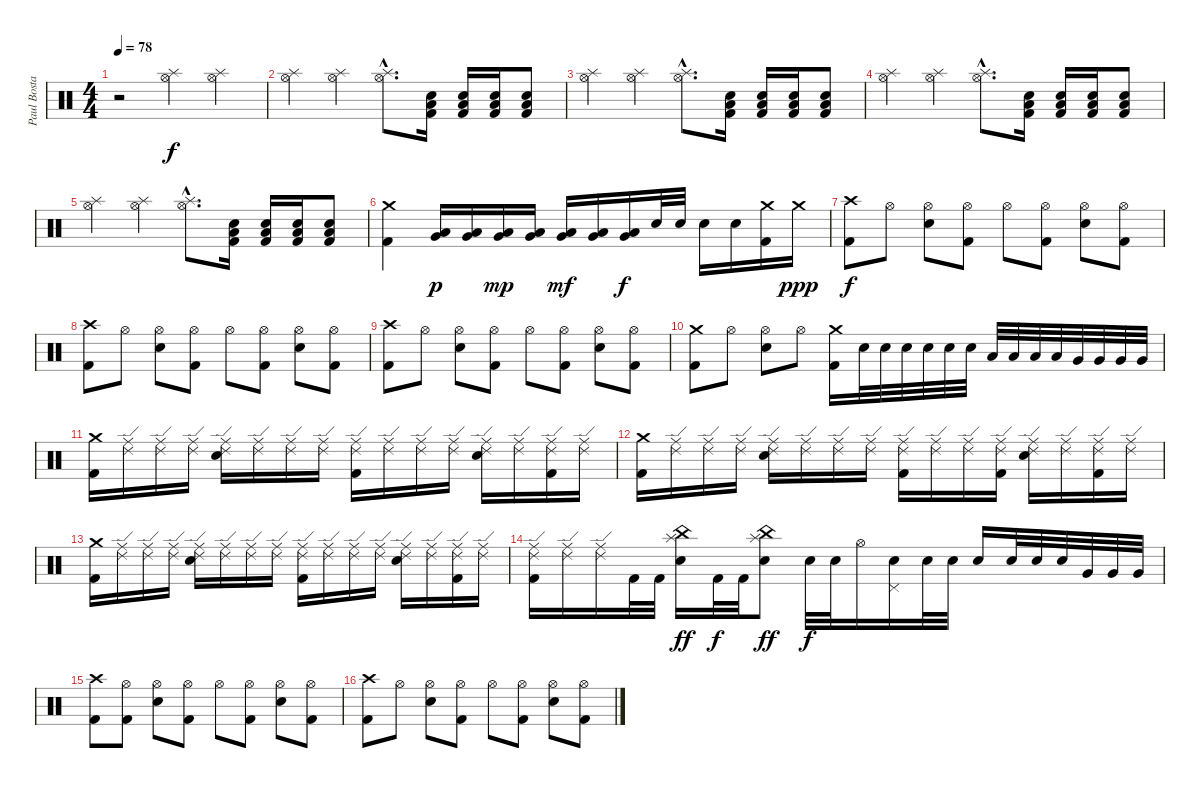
\track ("Paul Bostaph" "Paul Bosta") {instrument percussion}
\staff {score}
\articulation defaults
\ts (4 4)
\tempo 78
\clef neutral
\ks c
r.2{dy f} ("Hi-Hat (open)" "Splash (hit)").4 ("Hi-Hat (open)" "Splash (hit)").4 |
("Hi-Hat (open)" "Splash (hit)").4 ("Hi-Hat (open)" "Splash (hit)").4 ("Hi-Hat (open)"{hac} "Splash (hit)"{hac}).8{d} ("Low Floor Tom (hit)" "Electric Snare (hit)" "Kick (hit) 2").16 ("Low Floor Tom (hit)" "Electric Snare (hit)" "Kick (hit) 2").16 ("Low Floor Tom (hit)" "Electric Snare (hit)" "Kick (hit) 2").16 ("Low Floor Tom (hit)" "Electric Snare (hit)" "Kick (hit) 2").8 |
("Hi-Hat (open)" "Splash (hit)").4 ("Hi-Hat (open)" "Splash (hit)").4 ("Hi-Hat (open)"{hac} "Splash (hit)"{hac}).8{d} ("Low Floor Tom (hit)" "Electric Snare (hit)" "Kick (hit) 2").16 ("Low Floor Tom (hit)" "Electric Snare (hit)" "Kick (hit) 2").16 ("Low Floor Tom (hit)" "Electric Snare (hit)" "Kick (hit) 2").16 ("Low Floor Tom (hit)" "Electric Snare (hit)" "Kick (hit) 2").8 |
("Hi-Hat (open)" "Splash (hit)").4 ("Hi-Hat (open)" "Splash (hit)").4 ("Hi-Hat (open)"{hac} "Splash (hit)"{hac}).8{d} ("Low Floor Tom (hit)" "Electric Snare (hit)" "Kick (hit) 2").16 ("Low Floor Tom (hit)" "Electric Snare (hit)" "Kick (hit) 2").16 ("Low Floor Tom (hit)" "Electric Snare (hit)" "Kick (hit) 2").16 ("Low Floor Tom (hit)" "Electric Snare (hit)" "Kick (hit) 2").8 |
("Hi-Hat (open)" "Splash (hit)").4 ("Hi-Hat (open)" "Splash (hit)").4 ("Hi-Hat (open)"{hac} "Splash (hit)"{hac}).8{d} ("Low Floor Tom (hit)" "Electric Snare (hit)" "Kick (hit) 2").16 ("Low Floor Tom (hit)" "Electric Snare (hit)" "Kick (hit) 2").16 ("Low Floor Tom (hit)" "Electric Snare (hit)" "Kick (hit) 2").16 ("Low Floor Tom (hit)" "Electric Snare (hit)" "Kick (hit) 2").8 |
("Crash medium (hit)" "Kick (hit) 2").4 ("Low Floor Tom (hit)" "Very Low Tom (hit)").16{dy p} ("Low Floor Tom (hit)" "Very Low Tom (hit)").16 ("Low Floor Tom (hit)" "Very Low Tom (hit)").16{dy mp} ("Low Floor Tom (hit)" "Very Low Tom (hit)").16 ("Low Floor Tom (hit)" "Very Low Tom (hit)").16{dy mf} ("Low Floor Tom (hit)" "Very Low Tom (hit)").16 ("Low Floor Tom (hit)" "Very Low Tom (hit)").16{dy f} "Electric Snare (hit)".32 "Electric Snare (hit)".32 "Electric Snare (hit)".16 "Electric Snare (hit)".16 ("Crash medium (hit)" "Kick (hit) 2").16 "Crash medium (hit)".16{dy ppp} |
("Crash high (hit)" "Kick (hit) 2").8{dy f} "Hi-Hat (open)".8 ("Hi-Hat (open)" "Electric Snare (hit)").8 ("Hi-Hat (open)" "Kick (hit) 2").8 "Hi-Hat (open)".8 ("Hi-Hat (open)" "Kick (hit) 2").8 ("Hi-Hat (open)" "Electric Snare (hit)").8 ("Hi-Hat (open)" "Kick (hit) 2").8 |
("Crash high (hit)" "Kick (hit) 2").8 "Hi-Hat (open)".8 ("Hi-Hat (open)" "Electric Snare (hit)").8 ("Hi-Hat (open)" "Kick (hit) 2").8 "Hi-Hat (open)".8 ("Hi-Hat (open)" "Kick (hit) 2").8 ("Hi-Hat (open)" "Electric Snare (hit)").8 ("Hi-Hat (open)" "Kick (hit) 2").8 |
("Crash high (hit)" "Kick (hit) 2").8 "Hi-Hat (open)".8 ("Hi-Hat (open)" "Electric Snare (hit)").8 ("Hi-Hat (open)" "Kick (hit) 2").8 "Hi-Hat (open)".8 ("Hi-Hat (open)" "Kick (hit) 2").8 ("Hi-Hat (open)" "Electric Snare (hit)").8 ("Hi-Hat (open)" "Kick (hit) 2").8 |
("Crash medium (hit)" "Kick (hit) 2").8 "Hi-Hat (open)".8 ("Hi-Hat (open)" "Electric Snare (hit)").8 "Hi-Hat (open)".8 ("Crash medium (hit)" "Kick (hit) 2").16 "Electric Snare (hit)".32 "Electric Snare (hit)".32 "Electric Snare (hit)".32 "Electric Snare (hit)".32 "Electric Snare (hit)".32 "Electric Snare (hit)".32 "Low Tom (hit)".32 "Low Tom (hit)".32 "Low Tom (hit)".32 "Low Tom (hit)".32 "Very Low Tom (hit)".32 "Very Low Tom (hit)".32 "Very Low Tom (hit)".32 "Very Low Tom (hit)".32 |
("Kick (hit) 2" "Crash medium (hit)").16 ("Ride (edge) 2" "Ride (middle)").16 ("Ride (edge) 2" "Ride (middle)").16 ("Ride (edge) 2" "Ride (middle)").16 ("Ride (edge) 2" "Ride (middle)" "Electric Snare (hit)").16 ("Ride (edge) 2" "Ride (middle)").16 ("Ride (edge) 2" "Ride (middle)").16 ("Ride (edge) 2" "Ride (middle)").16 ("Ride (edge) 2" "Ride (middle)" "Kick (hit) 2").16 ("Ride (edge) 2" "Ride (middle)").16 ("Ride (edge) 2" "Ride (middle)").16 ("Ride (edge) 2" "Ride (middle)").16 ("Ride (edge) 2" "Ride (middle)" "Electric Snare (hit)").16 ("Ride (edge) 2" "Ride (middle)").16 ("Ride (edge) 2" "Ride (middle)" "Kick (hit) 2").16 ("Ride (edge) 2" "Ride (middle)").16 |
("Kick (hit) 2" "Crash medium (hit)").16 ("Ride (edge) 2" "Ride (middle)").16 ("Ride (edge) 2" "Ride (middle)").16 ("Ride (edge) 2" "Ride (middle)").16 ("Ride (edge) 2" "Ride (middle)" "Electric Snare (hit)").16 ("Ride (edge) 2" "Ride (middle)").16 ("Ride (edge) 2" "Ride (middle)").16 ("Ride (edge) 2" "Ride (middle)").16 ("Ride (edge) 2" "Ride (middle)" "Kick (hit) 2").16 ("Ride (edge) 2" "Ride (middle)").16 ("Ride (edge) 2" "Ride (middle)").16 ("Ride (edge) 2" "Ride (middle)" "Kick (hit) 2").16 ("Ride (edge) 2" "Ride (middle)" "Electric Snare (hit)").16 ("Ride (edge) 2" "Ride (middle)").16 ("Ride (edge) 2" "Ride (middle)" "Kick (hit) 2").16 ("Ride (edge) 2" "Ride (middle)").16 |
("Kick (hit) 2" "Crash medium (hit)").16 ("Ride (edge) 2" "Ride (middle)").16 ("Ride (edge) 2" "Ride (middle)").16 ("Ride (edge) 2" "Ride (middle)").16 ("Ride (edge) 2" "Ride (middle)" "Electric Snare (hit)").16 ("Ride (edge) 2" "Ride (middle)").16 ("Ride (edge) 2" "Ride (middle)").16 ("Ride (edge) 2" "Ride (middle)").16 ("Ride (edge) 2" "Ride (middle)" "Kick (hit) 2").16 ("Ride (edge) 2" "Ride (middle)").16 ("Ride (edge) 2" "Ride (middle)").16 ("Ride (edge) 2" "Ride (middle)").16 ("Ride (edge) 2" "Ride (middle)" "Electric Snare (hit)").16 ("Ride (edge) 2" "Ride (middle)").16 ("Ride (edge) 2" "Ride (middle)" "Kick (hit) 2").16 ("Ride (edge) 2" "Ride (middle)").16 |
("Ride (edge) 2" "Ride (middle)" "Kick (hit) 2").16 ("Ride (edge) 2" "Ride (middle)").16 ("Ride (edge) 2" "Ride (middle)").16 "Kick (hit) 2".32 "Kick (hit) 2".32 ("China (hit)" "Splash (hit)" "Electric Snare (hit)").16{dy ff} "Kick (hit) 2".32{dy f} "Kick (hit) 2".32 ("China (hit)" "Splash (hit)" "Electric Snare (hit)").8{dy ff} "Electric Snare (hit)".32{dy f} "Electric Snare (hit)".32 "Hi-Hat (open)".16 ("Pedal Hi-Hat (hit)" "Electric Snare (hit)").16 "Electric Snare (hit)".32 "Electric Snare (hit)".32 "Electric Snare (hit)".16 "Electric Snare (hit)".32 "Electric Snare (hit)".32 "Electric Snare (hit)".32 "Very Low Tom (hit)".32 "Very Low Tom (hit)".32 "Very Low Tom (hit)".32 |
("Crash high (hit)" "Kick (hit) 2").8 ("Hi-Hat (open)" "Kick (hit) 2").8 ("Hi-Hat (open)" "Electric Snare (hit)").8 ("Hi-Hat (open)" "Kick (hit) 2").8 "Hi-Hat (open)".8 ("Hi-Hat (open)" "Kick (hit) 2").8 ("Hi-Hat (open)" "Electric Snare (hit)").8 ("Hi-Hat (open)" "Kick (hit) 2").8 |
("Crash high (hit)" "Kick (hit) 2").8 "Hi-Hat (open)".8 ("Hi-Hat (open)" "Electric Snare (hit)").8 ("Hi-Hat (open)" "Kick (hit) 2").8 "Hi-Hat (open)".8 ("Hi-Hat (open)" "Kick (hit) 2").8 ("Hi-Hat (open)" "Electric Snare (hit)").8 ("Hi-Hat (open)" "Kick (hit) 2").8
